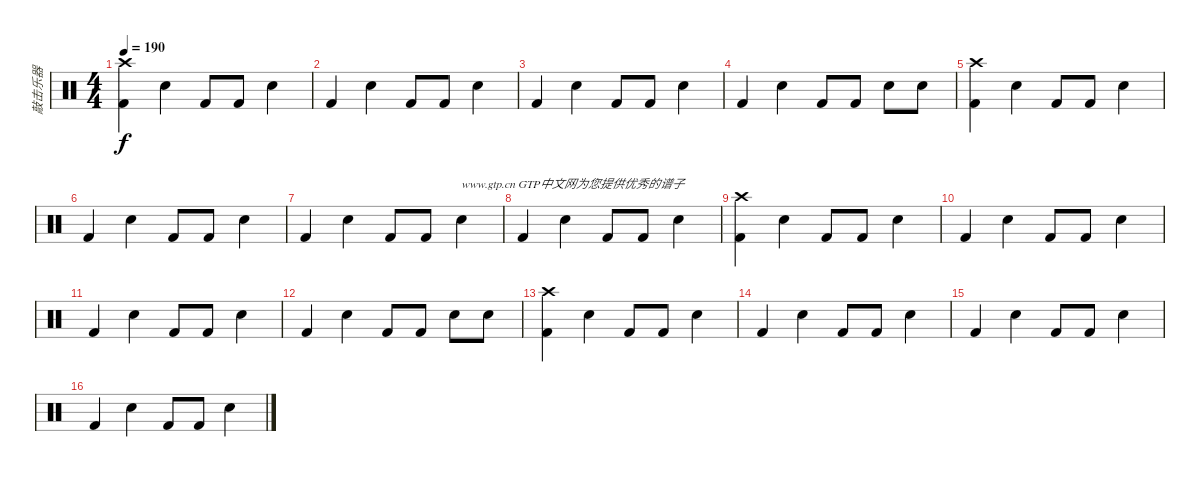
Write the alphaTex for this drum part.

\track ("敲击乐器" "敲击乐器") {instrument percussion}
\staff {score}
\articulation defaults
\ts (4 4)
\tempo 190
\clef neutral
\ks c
("Kick (hit) 2" "Crash high (hit)").4{dy f} "Snare (hit) 2".4 "Kick (hit) 2".8 "Kick (hit) 2".8 "Snare (hit) 2".4 |
"Kick (hit) 2".4 "Snare (hit) 2".4 "Kick (hit) 2".8 "Kick (hit) 2".8 "Snare (hit) 2".4 |
"Kick (hit) 2".4 "Snare (hit) 2".4 "Kick (hit) 2".8 "Kick (hit) 2".8 "Snare (hit) 2".4 |
"Kick (hit) 2".4 "Snare (hit) 2".4 "Kick (hit) 2".8 "Kick (hit) 2".8 "Snare (hit) 2".8 "Snare (hit) 2".8 |
("Kick (hit) 2" "Crash high (hit)").4 "Snare (hit) 2".4 "Kick (hit) 2".8 "Kick (hit) 2".8 "Snare (hit) 2".4 |
"Kick (hit) 2".4 "Snare (hit) 2".4 "Kick (hit) 2".8 "Kick (hit) 2".8 "Snare (hit) 2".4 |
"Kick (hit) 2".4 "Snare (hit) 2".4 "Kick (hit) 2".8 "Kick (hit) 2".8 "Snare (hit) 2".4{txt "www.gtp.cn GTP中文网为您提供优秀的谱子"} |
"Kick (hit) 2".4 "Snare (hit) 2".4 "Kick (hit) 2".8 "Kick (hit) 2".8 "Snare (hit) 2".4 |
("Kick (hit) 2" "Crash high (hit)").4 "Snare (hit) 2".4 "Kick (hit) 2".8 "Kick (hit) 2".8 "Snare (hit) 2".4 |
"Kick (hit) 2".4 "Snare (hit) 2".4 "Kick (hit) 2".8 "Kick (hit) 2".8 "Snare (hit) 2".4 |
"Kick (hit) 2".4 "Snare (hit) 2".4 "Kick (hit) 2".8 "Kick (hit) 2".8 "Snare (hit) 2".4 |
"Kick (hit) 2".4 "Snare (hit) 2".4 "Kick (hit) 2".8 "Kick (hit) 2".8 "Snare (hit) 2".8 "Snare (hit) 2".8 |
("Kick (hit) 2" "Crash high (hit)").4 "Snare (hit) 2".4 "Kick (hit) 2".8 "Kick (hit) 2".8 "Snare (hit) 2".4 |
"Kick (hit) 2".4 "Snare (hit) 2".4 "Kick (hit) 2".8 "Kick (hit) 2".8 "Snare (hit) 2".4 |
"Kick (hit) 2".4 "Snare (hit) 2".4 "Kick (hit) 2".8 "Kick (hit) 2".8 "Snare (hit) 2".4 |
"Kick (hit) 2".4 "Snare (hit) 2".4 "Kick (hit) 2".8 "Kick (hit) 2".8 "Snare (hit) 2".4
